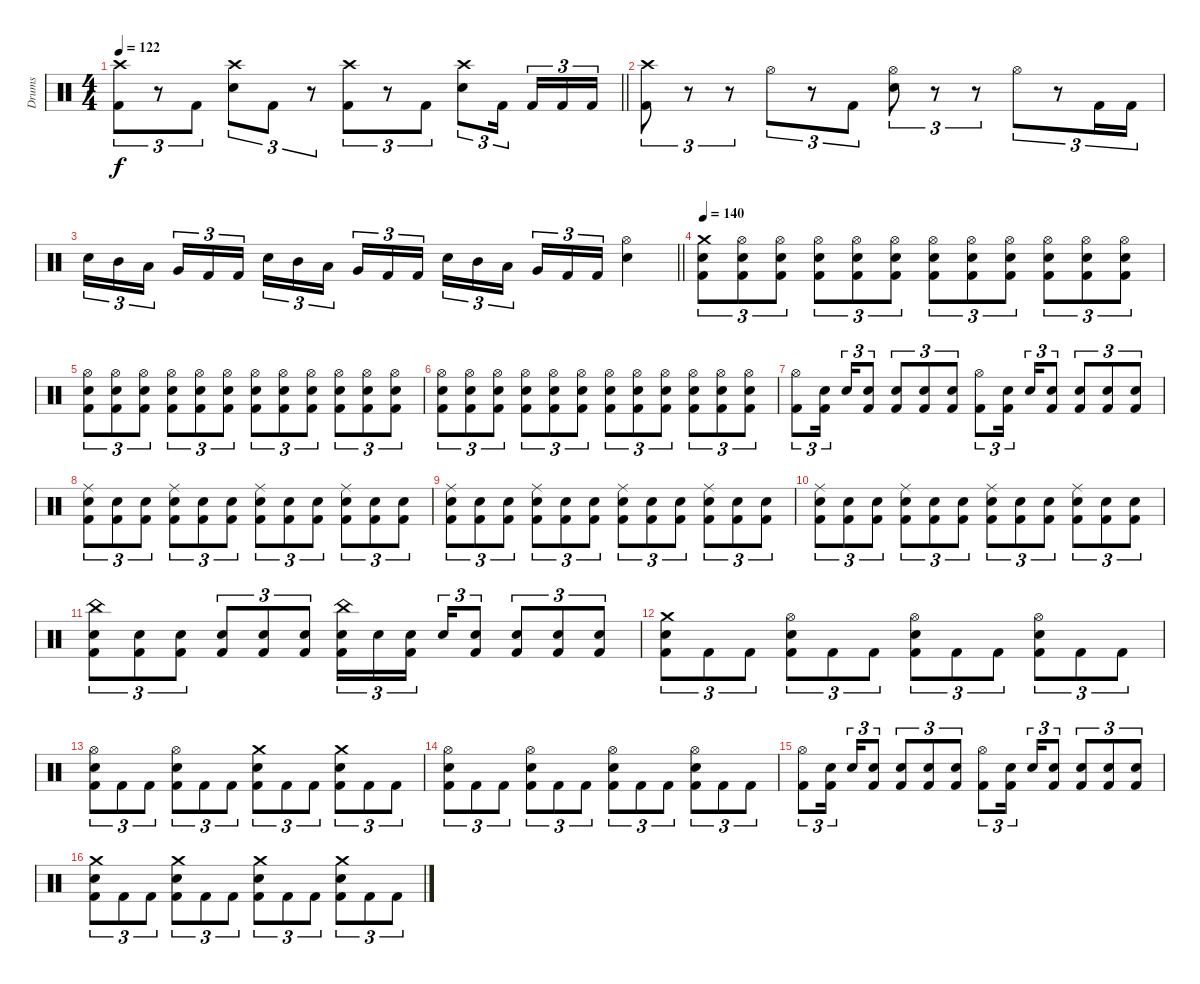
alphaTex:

\track ("Drums" "Drums") {instrument percussion}
\staff {score}
\articulation defaults
\ts (4 4)
\tempo 122
\clef neutral
\barLineRight lightlight
\ks c
("Crash high (hit)" "Kick (hit) 2").8{tu (3 2) dy f} r.8{tu (3 2)} "Kick (hit) 2".8{tu (3 2)} ("Crash high (hit)" "Electric Snare (hit)").8{tu (3 2)} "Kick (hit) 2".8{tu (3 2)} r.8{tu (3 2)} ("Crash high (hit)" "Kick (hit) 2").8{tu (3 2)} r.8{tu (3 2)} "Kick (hit) 2".8{tu (3 2)} ("Crash high (hit)" "Electric Snare (hit)").8{tu (3 2)} "Kick (hit) 2".16{tu (3 2) beam splitsecondary} "Kick (hit) 2".16{tu (3 2)} "Kick (hit) 2".16{tu (3 2)} "Kick (hit) 2".16{tu (3 2)} |
("Crash high (hit)" "Kick (hit) 2").8{tu (3 2)} r.8{tu (3 2)} r.8{tu (3 2)} "Hi-Hat (open)".8{tu (3 2)} r.8{tu (3 2)} "Kick (hit) 2".8{tu (3 2)} ("Hi-Hat (open)" "Electric Snare (hit)").8{tu (3 2)} r.8{tu (3 2)} r.8{tu (3 2)} "Hi-Hat (open)".8{tu (3 2)} r.8{tu (3 2)} "Kick (hit) 2".16{tu (3 2)} "Kick (hit) 2".16{tu (3 2)} |
\barLineRight lightlight "Electric Snare (hit)".16{tu (3 2)} "Mid Tom (hit)".16{tu (3 2)} "Low Tom (hit)".16{tu (3 2) beam splitsecondary} "Very Low Tom (hit)".16{tu (3 2)} "Kick (hit) 2".16{tu (3 2)} "Kick (hit) 2".16{tu (3 2)} "Electric Snare (hit)".16{tu (3 2)} "Mid Tom (hit)".16{tu (3 2)} "Low Tom (hit)".16{tu (3 2) beam splitsecondary} "Very Low Tom (hit)".16{tu (3 2)} "Kick (hit) 2".16{tu (3 2)} "Kick (hit) 2".16{tu (3 2)} "Electric Snare (hit)".16{tu (3 2)} "Mid Tom (hit)".16{tu (3 2)} "Low Tom (hit)".16{tu (3 2) beam splitsecondary} "Very Low Tom (hit)".16{tu (3 2)} "Kick (hit) 2".16{tu (3 2)} "Kick (hit) 2".16{tu (3 2)}
("Hi-Hat (open)" "Electric Snare (hit)").4 |
\tempo 140
("Crash medium (hit)" "Electric Snare (hit)" "Kick (hit) 2").8{tu (3 2)} ("Hi-Hat (open)" "Electric Snare (hit)" "Kick (hit) 2").8{tu (3 2)} ("Hi-Hat (open)" "Electric Snare (hit)" "Kick (hit) 2").8{tu (3 2)} ("Hi-Hat (open)" "Electric Snare (hit)" "Kick (hit) 2").8{tu (3 2)} ("Hi-Hat (open)" "Electric Snare (hit)" "Kick (hit) 2").8{tu (3 2)} ("Hi-Hat (open)" "Electric Snare (hit)" "Kick (hit) 2").8{tu (3 2)} ("Hi-Hat (open)" "Electric Snare (hit)" "Kick (hit) 2").8{tu (3 2)} ("Hi-Hat (open)" "Electric Snare (hit)" "Kick (hit) 2").8{tu (3 2)} ("Hi-Hat (open)" "Electric Snare (hit)" "Kick (hit) 2").8{tu (3 2)} ("Hi-Hat (open)" "Electric Snare (hit)" "Kick (hit) 2").8{tu (3 2)} ("Hi-Hat (open)" "Electric Snare (hit)" "Kick (hit) 2").8{tu (3 2)} ("Hi-Hat (open)" "Electric Snare (hit)" "Kick (hit) 2").8{tu (3 2)} |
("Hi-Hat (open)" "Electric Snare (hit)" "Kick (hit) 2").8{tu (3 2)} ("Hi-Hat (open)" "Electric Snare (hit)" "Kick (hit) 2").8{tu (3 2)} ("Hi-Hat (open)" "Electric Snare (hit)" "Kick (hit) 2").8{tu (3 2)} ("Hi-Hat (open)" "Electric Snare (hit)" "Kick (hit) 2").8{tu (3 2)} ("Hi-Hat (open)" "Electric Snare (hit)" "Kick (hit) 2").8{tu (3 2)} ("Hi-Hat (open)" "Electric Snare (hit)" "Kick (hit) 2").8{tu (3 2)} ("Hi-Hat (open)" "Electric Snare (hit)" "Kick (hit) 2").8{tu (3 2)} ("Hi-Hat (open)" "Electric Snare (hit)" "Kick (hit) 2").8{tu (3 2)} ("Hi-Hat (open)" "Electric Snare (hit)" "Kick (hit) 2").8{tu (3 2)} ("Hi-Hat (open)" "Electric Snare (hit)" "Kick (hit) 2").8{tu (3 2)} ("Hi-Hat (open)" "Electric Snare (hit)" "Kick (hit) 2").8{tu (3 2)} ("Hi-Hat (open)" "Electric Snare (hit)" "Kick (hit) 2").8{tu (3 2)} |
("Hi-Hat (open)" "Electric Snare (hit)" "Kick (hit) 2").8{tu (3 2)} ("Hi-Hat (open)" "Electric Snare (hit)" "Kick (hit) 2").8{tu (3 2)} ("Hi-Hat (open)" "Electric Snare (hit)" "Kick (hit) 2").8{tu (3 2)} ("Hi-Hat (open)" "Electric Snare (hit)" "Kick (hit) 2").8{tu (3 2)} ("Hi-Hat (open)" "Electric Snare (hit)" "Kick (hit) 2").8{tu (3 2)} ("Hi-Hat (open)" "Electric Snare (hit)" "Kick (hit) 2").8{tu (3 2)} ("Hi-Hat (open)" "Electric Snare (hit)" "Kick (hit) 2").8{tu (3 2)} ("Hi-Hat (open)" "Electric Snare (hit)" "Kick (hit) 2").8{tu (3 2)} ("Hi-Hat (open)" "Electric Snare (hit)" "Kick (hit) 2").8{tu (3 2)} ("Hi-Hat (open)" "Electric Snare (hit)" "Kick (hit) 2").8{tu (3 2)} ("Hi-Hat (open)" "Electric Snare (hit)" "Kick (hit) 2").8{tu (3 2)} ("Hi-Hat (open)" "Electric Snare (hit)" "Kick (hit) 2").8{tu (3 2)} |
("Hi-Hat (open)" "Kick (hit) 2").8{tu (3 2)} ("Electric Snare (hit)" "Kick (hit) 2").16{tu (3 2) beam splitsecondary} "Electric Snare (hit)".16{tu (3 2)} ("Electric Snare (hit)" "Kick (hit) 2").8{tu (3 2)} ("Electric Snare (hit)" "Kick (hit) 2").8{tu (3 2)} ("Electric Snare (hit)" "Kick (hit) 2").8{tu (3 2)} ("Electric Snare (hit)" "Kick (hit) 2").8{tu (3 2)} ("Hi-Hat (open)" "Kick (hit) 2").8{tu (3 2)} ("Electric Snare (hit)" "Kick (hit) 2").16{tu (3 2) beam splitsecondary} "Electric Snare (hit)".16{tu (3 2)} ("Electric Snare (hit)" "Kick (hit) 2").8{tu (3 2)} ("Electric Snare (hit)" "Kick (hit) 2").8{tu (3 2)} ("Electric Snare (hit)" "Kick (hit) 2").8{tu (3 2)} ("Electric Snare (hit)" "Kick (hit) 2").8{tu (3 2)} |
("Ride (middle)" "Electric Snare (hit)" "Kick (hit) 2").8{tu (3 2)} ("Electric Snare (hit)" "Kick (hit) 2").8{tu (3 2)} ("Electric Snare (hit)" "Kick (hit) 2").8{tu (3 2)} ("Ride (middle)" "Electric Snare (hit)" "Kick (hit) 2").8{tu (3 2)} ("Electric Snare (hit)" "Kick (hit) 2").8{tu (3 2)} ("Electric Snare (hit)" "Kick (hit) 2").8{tu (3 2)} ("Ride (middle)" "Electric Snare (hit)" "Kick (hit) 2").8{tu (3 2)} ("Electric Snare (hit)" "Kick (hit) 2").8{tu (3 2)} ("Electric Snare (hit)" "Kick (hit) 2").8{tu (3 2)} ("Ride (middle)" "Electric Snare (hit)" "Kick (hit) 2").8{tu (3 2)} ("Electric Snare (hit)" "Kick (hit) 2").8{tu (3 2)} ("Electric Snare (hit)" "Kick (hit) 2").8{tu (3 2)} |
("Ride (middle)" "Electric Snare (hit)" "Kick (hit) 2").8{tu (3 2)} ("Electric Snare (hit)" "Kick (hit) 2").8{tu (3 2)} ("Electric Snare (hit)" "Kick (hit) 2").8{tu (3 2)} ("Ride (middle)" "Electric Snare (hit)" "Kick (hit) 2").8{tu (3 2)} ("Electric Snare (hit)" "Kick (hit) 2").8{tu (3 2)} ("Electric Snare (hit)" "Kick (hit) 2").8{tu (3 2)} ("Ride (middle)" "Electric Snare (hit)" "Kick (hit) 2").8{tu (3 2)} ("Electric Snare (hit)" "Kick (hit) 2").8{tu (3 2)} ("Electric Snare (hit)" "Kick (hit) 2").8{tu (3 2)} ("Ride (middle)" "Electric Snare (hit)" "Kick (hit) 2").8{tu (3 2)} ("Electric Snare (hit)" "Kick (hit) 2").8{tu (3 2)} ("Electric Snare (hit)" "Kick (hit) 2").8{tu (3 2)} |
("Ride (middle)" "Electric Snare (hit)" "Kick (hit) 2").8{tu (3 2)} ("Electric Snare (hit)" "Kick (hit) 2").8{tu (3 2)} ("Electric Snare (hit)" "Kick (hit) 2").8{tu (3 2)} ("Ride (middle)" "Electric Snare (hit)" "Kick (hit) 2").8{tu (3 2)} ("Electric Snare (hit)" "Kick (hit) 2").8{tu (3 2)} ("Electric Snare (hit)" "Kick (hit) 2").8{tu (3 2)} ("Ride (middle)" "Electric Snare (hit)" "Kick (hit) 2").8{tu (3 2)} ("Electric Snare (hit)" "Kick (hit) 2").8{tu (3 2)} ("Electric Snare (hit)" "Kick (hit) 2").8{tu (3 2)} ("Ride (middle)" "Electric Snare (hit)" "Kick (hit) 2").8{tu (3 2)} ("Electric Snare (hit)" "Kick (hit) 2").8{tu (3 2)} ("Electric Snare (hit)" "Kick (hit) 2").8{tu (3 2)} |
("China (hit)" "Electric Snare (hit)" "Kick (hit) 2").8{tu (3 2)} ("Electric Snare (hit)" "Kick (hit) 2").8{tu (3 2)} ("Electric Snare (hit)" "Kick (hit) 2").8{tu (3 2)} ("Electric Snare (hit)" "Kick (hit) 2").8{tu (3 2)} ("Electric Snare (hit)" "Kick (hit) 2").8{tu (3 2)} ("Electric Snare (hit)" "Kick (hit) 2").8{tu (3 2)} ("China (hit)" "Electric Snare (hit)" "Kick (hit) 2").16{tu (3 2)} "Electric Snare (hit)".16{tu (3 2)} ("Electric Snare (hit)" "Kick (hit) 2").16{tu (3 2) beam splitsecondary} "Electric Snare (hit)".16{tu (3 2)} ("Electric Snare (hit)" "Kick (hit) 2").8{tu (3 2)} ("Electric Snare (hit)" "Kick (hit) 2").8{tu (3 2)} ("Electric Snare (hit)" "Kick (hit) 2").8{tu (3 2)} ("Electric Snare (hit)" "Kick (hit) 2").8{tu (3 2)} |
("Crash medium (hit)" "Electric Snare (hit)" "Kick (hit) 2").8{tu (3 2)} "Kick (hit) 2".8{tu (3 2)} "Kick (hit) 2".8{tu (3 2)} ("Hi-Hat (open)" "Electric Snare (hit)" "Kick (hit) 2").8{tu (3 2)} "Kick (hit) 2".8{tu (3 2)} "Kick (hit) 2".8{tu (3 2)} ("Hi-Hat (open)" "Electric Snare (hit)" "Kick (hit) 2").8{tu (3 2)} "Kick (hit) 2".8{tu (3 2)} "Kick (hit) 2".8{tu (3 2)} ("Hi-Hat (open)" "Electric Snare (hit)" "Kick (hit) 2").8{tu (3 2)} "Kick (hit) 2".8{tu (3 2)} "Kick (hit) 2".8{tu (3 2)} |
("Hi-Hat (open)" "Electric Snare (hit)" "Kick (hit) 2").8{tu (3 2)} "Kick (hit) 2".8{tu (3 2)} "Kick (hit) 2".8{tu (3 2)} ("Hi-Hat (open)" "Electric Snare (hit)" "Kick (hit) 2").8{tu (3 2)} "Kick (hit) 2".8{tu (3 2)} "Kick (hit) 2".8{tu (3 2)} ("Crash medium (hit)" "Electric Snare (hit)" "Kick (hit) 2").8{tu (3 2)} "Kick (hit) 2".8{tu (3 2)} "Kick (hit) 2".8{tu (3 2)} ("Crash medium (hit)" "Electric Snare (hit)" "Kick (hit) 2").8{tu (3 2)} "Kick (hit) 2".8{tu (3 2)} "Kick (hit) 2".8{tu (3 2)} |
("Hi-Hat (open)" "Electric Snare (hit)" "Kick (hit) 2").8{tu (3 2)} "Kick (hit) 2".8{tu (3 2)} "Kick (hit) 2".8{tu (3 2)} ("Hi-Hat (open)" "Electric Snare (hit)" "Kick (hit) 2").8{tu (3 2)} "Kick (hit) 2".8{tu (3 2)} "Kick (hit) 2".8{tu (3 2)} ("Hi-Hat (open)" "Electric Snare (hit)" "Kick (hit) 2").8{tu (3 2)} "Kick (hit) 2".8{tu (3 2)} "Kick (hit) 2".8{tu (3 2)} ("Hi-Hat (open)" "Electric Snare (hit)" "Kick (hit) 2").8{tu (3 2)} "Kick (hit) 2".8{tu (3 2)} "Kick (hit) 2".8{tu (3 2)} |
("Hi-Hat (open)" "Kick (hit) 2").8{tu (3 2)} ("Electric Snare (hit)" "Kick (hit) 2").16{tu (3 2) beam splitsecondary} "Electric Snare (hit)".16{tu (3 2)} ("Electric Snare (hit)" "Kick (hit) 2").8{tu (3 2)} ("Electric Snare (hit)" "Kick (hit) 2").8{tu (3 2)} ("Electric Snare (hit)" "Kick (hit) 2").8{tu (3 2)} ("Electric Snare (hit)" "Kick (hit) 2").8{tu (3 2)} ("Hi-Hat (open)" "Kick (hit) 2").8{tu (3 2)} ("Electric Snare (hit)" "Kick (hit) 2").16{tu (3 2) beam splitsecondary} "Electric Snare (hit)".16{tu (3 2)} ("Electric Snare (hit)" "Kick (hit) 2").8{tu (3 2)} ("Electric Snare (hit)" "Kick (hit) 2").8{tu (3 2)} ("Electric Snare (hit)" "Kick (hit) 2").8{tu (3 2)} ("Electric Snare (hit)" "Kick (hit) 2").8{tu (3 2)} |
("Crash medium (hit)" "Electric Snare (hit)" "Kick (hit) 2").8{tu (3 2)} "Kick (hit) 2".8{tu (3 2)} "Kick (hit) 2".8{tu (3 2)} ("Crash medium (hit)" "Electric Snare (hit)" "Kick (hit) 2").8{tu (3 2)} "Kick (hit) 2".8{tu (3 2)} "Kick (hit) 2".8{tu (3 2)} ("Crash medium (hit)" "Electric Snare (hit)" "Kick (hit) 2").8{tu (3 2)} "Kick (hit) 2".8{tu (3 2)} "Kick (hit) 2".8{tu (3 2)} ("Crash medium (hit)" "Electric Snare (hit)" "Kick (hit) 2").8{tu (3 2)} "Kick (hit) 2".8{tu (3 2)} "Kick (hit) 2".8{tu (3 2)}
